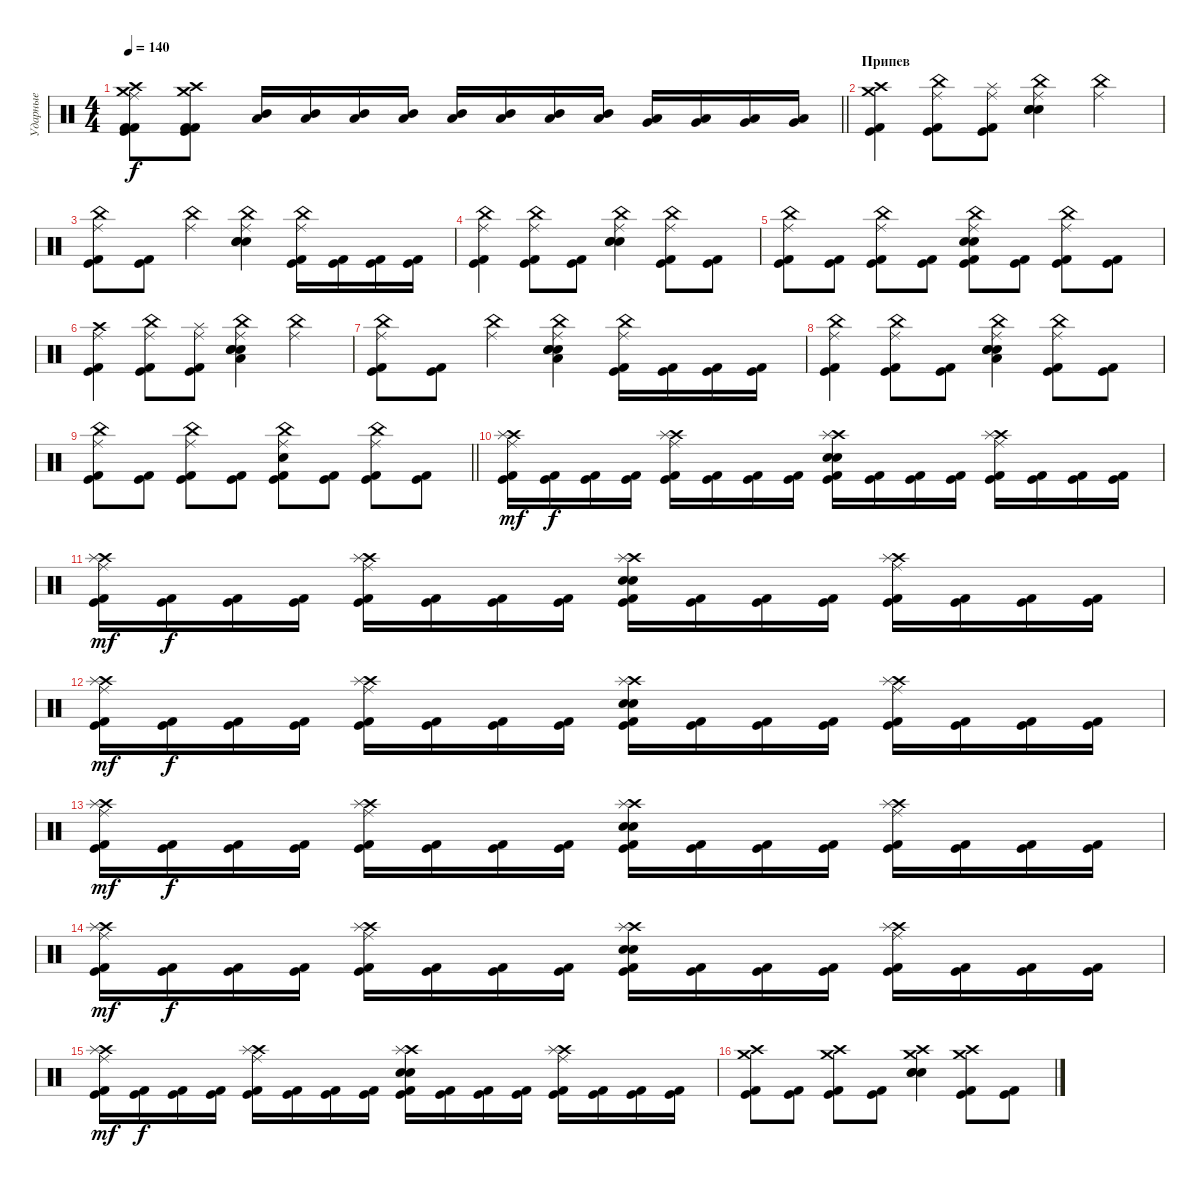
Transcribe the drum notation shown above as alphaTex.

\track ("Ударные" "Ударные") {instrument percussion}
\staff {score}
\articulation defaults
\ts (4 4)
\tempo 140
\clef neutral
\barLineRight lightlight
\ks c
("Ride (middle)" "Crash high (hit)" "Crash medium (hit)" "Kick (hit) 2" "Kick (hit)" "Kick (hit) 2").8{dy f} ("Crash high (hit)" "Crash medium (hit)" "Kick (hit) 2" "Kick (hit)" "Kick (hit) 2").8 ("Mid Tom (hit)" "Low Tom (hit)").16 ("Mid Tom (hit)" "Low Tom (hit)").16 ("Mid Tom (hit)" "Low Tom (hit)").16 ("Mid Tom (hit)" "Low Tom (hit)").16 ("Low Tom (hit)" "Mid Tom (hit)").16 ("Low Tom (hit)" "Mid Tom (hit)").16 ("Low Tom (hit)" "Mid Tom (hit)").16 ("Low Tom (hit)" "Mid Tom (hit)").16 ("Very Low Tom (hit)" "Low Tom (hit)").16 ("Very Low Tom (hit)" "Low Tom (hit)").16 ("Low Floor Tom (hit)" "Very Low Tom (hit)").16 ("Low Floor Tom (hit)" "Very Low Tom (hit)").16 |
\section ("" "Припев")
("Crash medium (hit)" "Crash high (hit)" "Kick (hit)" "Kick (hit) 2").4 ("China (hit)" "Ride (middle)" "Kick (hit)" "Kick (hit) 2").8 ("Splash (hit)" "Ride (middle)" "Kick (hit)" "Kick (hit) 2").8 ("China (hit)" "Ride (middle)" "Snare (hit) 2" "Electric Snare (hit)" "Electric Snare (hit)").4 ("China (hit)" "Ride (middle)").4 |
("China (hit)" "Ride (middle)" "Kick (hit)" "Kick (hit) 2").8 ("Kick (hit)" "Kick (hit) 2").8 ("China (hit)" "Ride (middle)").4 ("China (hit)" "Ride (middle)" "Snare (hit) 2" "Electric Snare (hit)" "Electric Snare (hit)").4 ("China (hit)" "Ride (middle)" "Kick (hit)" "Kick (hit) 2").16 ("Kick (hit)" "Kick (hit) 2").16 ("Kick (hit)" "Kick (hit) 2").16 ("Kick (hit)" "Kick (hit) 2").16 |
("China (hit)" "Ride (middle)" "Kick (hit)" "Kick (hit) 2").4 ("China (hit)" "Ride (middle)" "Kick (hit)" "Kick (hit) 2").8 ("Kick (hit)" "Kick (hit) 2").8 ("China (hit)" "Ride (middle)" "Snare (hit) 2" "Electric Snare (hit)" "Electric Snare (hit)").4 ("China (hit)" "Ride (middle)" "Kick (hit)" "Kick (hit) 2").8 ("Kick (hit)" "Kick (hit) 2").8 |
("China (hit)" "Ride (middle)" "Kick (hit)" "Kick (hit) 2").8 ("Kick (hit)" "Kick (hit) 2").8 ("China (hit)" "Ride (middle)" "Kick (hit)" "Kick (hit) 2").8 ("Kick (hit)" "Kick (hit) 2").8 ("China (hit)" "Ride (middle)" "Snare (hit) 2" "Electric Snare (hit)" "Kick (hit)" "Kick (hit) 2").8 ("Kick (hit)" "Kick (hit) 2").8 ("China (hit)" "Ride (middle)" "Kick (hit)" "Kick (hit) 2").8 ("Kick (hit)" "Kick (hit) 2").8 |
("Crash high (hit)" "Ride (middle)" "Kick (hit)" "Kick (hit) 2").4 ("China (hit)" "Ride (middle)" "Kick (hit)" "Kick (hit) 2").8 ("Splash (hit)" "Ride (middle)" "Kick (hit)" "Kick (hit) 2").8 ("China (hit)" "Electric Snare (hit)" "Ride (middle)" "Electric Snare (hit)" "Snare (hit) 2" "Low Floor Tom (hit)").4 ("China (hit)" "Ride (middle)").4 |
("China (hit)" "Ride (middle)" "Kick (hit)" "Kick (hit) 2").8 ("Kick (hit)" "Kick (hit) 2").8 ("China (hit)" "Ride (middle)").4 ("China (hit)" "Ride (middle)" "Electric Snare (hit)" "Electric Snare (hit)" "Snare (hit) 2" "Low Floor Tom (hit)").4 ("China (hit)" "Ride (middle)" "Kick (hit)" "Kick (hit) 2").16 ("Kick (hit)" "Kick (hit) 2").16 ("Kick (hit)" "Kick (hit) 2").16 ("Kick (hit)" "Kick (hit) 2").16 |
("China (hit)" "Ride (middle)" "Kick (hit)" "Kick (hit) 2").4 ("China (hit)" "Ride (middle)" "Kick (hit)" "Kick (hit) 2").8 ("Kick (hit)" "Kick (hit) 2").8 ("China (hit)" "Ride (middle)" "Electric Snare (hit)" "Electric Snare (hit)" "Snare (hit) 2" "Low Floor Tom (hit)").4 ("China (hit)" "Ride (middle)" "Kick (hit)" "Kick (hit) 2").8 ("Kick (hit)" "Kick (hit) 2").8 |
\barLineRight lightlight
("China (hit)" "Ride (middle)" "Kick (hit)" "Kick (hit) 2").8 ("Kick (hit)" "Kick (hit) 2").8 ("China (hit)" "Ride (middle)" "Kick (hit)" "Kick (hit) 2").8 ("Kick (hit)" "Kick (hit) 2").8 ("China (hit)" "Ride (middle)" "Electric Snare (hit)" "Kick (hit)" "Kick (hit) 2").8 ("Kick (hit)" "Kick (hit) 2").8 ("China (hit)" "Ride (middle)" "Kick (hit)" "Kick (hit) 2").8 ("Kick (hit)" "Kick (hit) 2").8 |
("Crash high (hit)" "Ride (middle)" "Splash (hit)" "Kick (hit) 2" "Kick (hit)").16{dy mf} ("Kick (hit) 2" "Kick (hit)").16{dy f} ("Kick (hit) 2" "Kick (hit)").16 ("Kick (hit) 2" "Kick (hit)").16 ("Crash high (hit)" "Ride (middle)" "Splash (hit)" "Kick (hit) 2" "Kick (hit)").16 ("Kick (hit) 2" "Kick (hit)").16 ("Kick (hit) 2" "Kick (hit)").16 ("Kick (hit) 2" "Kick (hit)").16 ("Electric Snare (hit)" "Crash high (hit)" "Splash (hit)" "Snare (hit) 2" "Kick (hit) 2" "Kick (hit)").16 ("Kick (hit) 2" "Kick (hit)").16 ("Kick (hit) 2" "Kick (hit)").16 ("Kick (hit) 2" "Kick (hit)").16 ("Crash high (hit)" "Ride (middle)" "Splash (hit)" "Kick (hit) 2" "Kick (hit)").16 ("Kick (hit) 2" "Kick (hit)").16 ("Kick (hit) 2" "Kick (hit)").16 ("Kick (hit) 2" "Kick (hit)").16 |
("Crash high (hit)" "Ride (middle)" "Splash (hit)" "Kick (hit) 2" "Kick (hit)").16{dy mf} ("Kick (hit) 2" "Kick (hit)").16{dy f} ("Kick (hit) 2" "Kick (hit)").16 ("Kick (hit) 2" "Kick (hit)").16 ("Crash high (hit)" "Ride (middle)" "Splash (hit)" "Kick (hit) 2" "Kick (hit)").16 ("Kick (hit) 2" "Kick (hit)").16 ("Kick (hit) 2" "Kick (hit)").16 ("Kick (hit) 2" "Kick (hit)").16 ("Electric Snare (hit)" "Crash high (hit)" "Splash (hit)" "Snare (hit) 2" "Kick (hit) 2" "Kick (hit)").16 ("Kick (hit) 2" "Kick (hit)").16 ("Kick (hit) 2" "Kick (hit)").16 ("Kick (hit) 2" "Kick (hit)").16 ("Crash high (hit)" "Ride (middle)" "Splash (hit)" "Kick (hit) 2" "Kick (hit)").16 ("Kick (hit) 2" "Kick (hit)").16 ("Kick (hit) 2" "Kick (hit)").16 ("Kick (hit) 2" "Kick (hit)").16 |
("Crash high (hit)" "Ride (middle)" "Splash (hit)" "Kick (hit) 2" "Kick (hit)").16{dy mf} ("Kick (hit) 2" "Kick (hit)").16{dy f} ("Kick (hit) 2" "Kick (hit)").16 ("Kick (hit) 2" "Kick (hit)").16 ("Crash high (hit)" "Ride (middle)" "Splash (hit)" "Kick (hit) 2" "Kick (hit)").16 ("Kick (hit) 2" "Kick (hit)").16 ("Kick (hit) 2" "Kick (hit)").16 ("Kick (hit) 2" "Kick (hit)").16 ("Electric Snare (hit)" "Crash high (hit)" "Splash (hit)" "Snare (hit) 2" "Kick (hit) 2" "Kick (hit)").16 ("Kick (hit) 2" "Kick (hit)").16 ("Kick (hit) 2" "Kick (hit)").16 ("Kick (hit) 2" "Kick (hit)").16 ("Crash high (hit)" "Ride (middle)" "Splash (hit)" "Kick (hit) 2" "Kick (hit)").16 ("Kick (hit) 2" "Kick (hit)").16 ("Kick (hit) 2" "Kick (hit)").16 ("Kick (hit) 2" "Kick (hit)").16 |
("Crash high (hit)" "Ride (middle)" "Splash (hit)" "Kick (hit) 2" "Kick (hit)").16{dy mf} ("Kick (hit) 2" "Kick (hit)").16{dy f} ("Kick (hit) 2" "Kick (hit)").16 ("Kick (hit) 2" "Kick (hit)").16 ("Crash high (hit)" "Ride (middle)" "Splash (hit)" "Kick (hit) 2" "Kick (hit)").16 ("Kick (hit) 2" "Kick (hit)").16 ("Kick (hit) 2" "Kick (hit)").16 ("Kick (hit) 2" "Kick (hit)").16 ("Electric Snare (hit)" "Crash high (hit)" "Splash (hit)" "Snare (hit) 2" "Kick (hit) 2" "Kick (hit)").16 ("Kick (hit) 2" "Kick (hit)").16 ("Kick (hit) 2" "Kick (hit)").16 ("Kick (hit) 2" "Kick (hit)").16 ("Crash high (hit)" "Ride (middle)" "Splash (hit)" "Kick (hit) 2" "Kick (hit)").16 ("Kick (hit) 2" "Kick (hit)").16 ("Kick (hit) 2" "Kick (hit)").16 ("Kick (hit) 2" "Kick (hit)").16 |
("Crash high (hit)" "Ride (middle)" "Splash (hit)" "Kick (hit) 2" "Kick (hit)").16{dy mf} ("Kick (hit) 2" "Kick (hit)").16{dy f} ("Kick (hit) 2" "Kick (hit)").16 ("Kick (hit) 2" "Kick (hit)").16 ("Crash high (hit)" "Ride (middle)" "Splash (hit)" "Kick (hit) 2" "Kick (hit)").16 ("Kick (hit) 2" "Kick (hit)").16 ("Kick (hit) 2" "Kick (hit)").16 ("Kick (hit) 2" "Kick (hit)").16 ("Electric Snare (hit)" "Crash high (hit)" "Splash (hit)" "Snare (hit) 2" "Kick (hit) 2" "Kick (hit)").16 ("Kick (hit) 2" "Kick (hit)").16 ("Kick (hit) 2" "Kick (hit)").16 ("Kick (hit) 2" "Kick (hit)").16 ("Crash high (hit)" "Ride (middle)" "Splash (hit)" "Kick (hit) 2" "Kick (hit)").16 ("Kick (hit) 2" "Kick (hit)").16 ("Kick (hit) 2" "Kick (hit)").16 ("Kick (hit) 2" "Kick (hit)").16 |
("Crash high (hit)" "Ride (middle)" "Splash (hit)" "Kick (hit) 2" "Kick (hit)").16{dy mf} ("Kick (hit) 2" "Kick (hit)").16{dy f} ("Kick (hit) 2" "Kick (hit)").16 ("Kick (hit) 2" "Kick (hit)").16 ("Crash high (hit)" "Ride (middle)" "Splash (hit)" "Kick (hit) 2" "Kick (hit)").16 ("Kick (hit) 2" "Kick (hit)").16 ("Kick (hit) 2" "Kick (hit)").16 ("Kick (hit) 2" "Kick (hit)").16 ("Electric Snare (hit)" "Crash high (hit)" "Splash (hit)" "Snare (hit) 2" "Kick (hit) 2" "Kick (hit)").16 ("Kick (hit) 2" "Kick (hit)").16 ("Kick (hit) 2" "Kick (hit)").16 ("Kick (hit) 2" "Kick (hit)").16 ("Crash high (hit)" "Ride (middle)" "Splash (hit)" "Kick (hit) 2" "Kick (hit)").16 ("Kick (hit) 2" "Kick (hit)").16 ("Kick (hit) 2" "Kick (hit)").16 ("Kick (hit) 2" "Kick (hit)").16 |
("Crash high (hit)" "Crash medium (hit)" "Kick (hit)" "Kick (hit) 2").8 ("Kick (hit)" "Kick (hit) 2").8 ("Crash high (hit)" "Crash medium (hit)" "Kick (hit)" "Kick (hit) 2").8 ("Kick (hit)" "Kick (hit) 2").8 ("Crash high (hit)" "Crash medium (hit)" "Snare (hit) 2" "Electric Snare (hit)" "Electric Snare (hit)").4 ("Crash high (hit)" "Crash medium (hit)" "Kick (hit)" "Kick (hit) 2").8 ("Kick (hit)" "Kick (hit) 2").8
